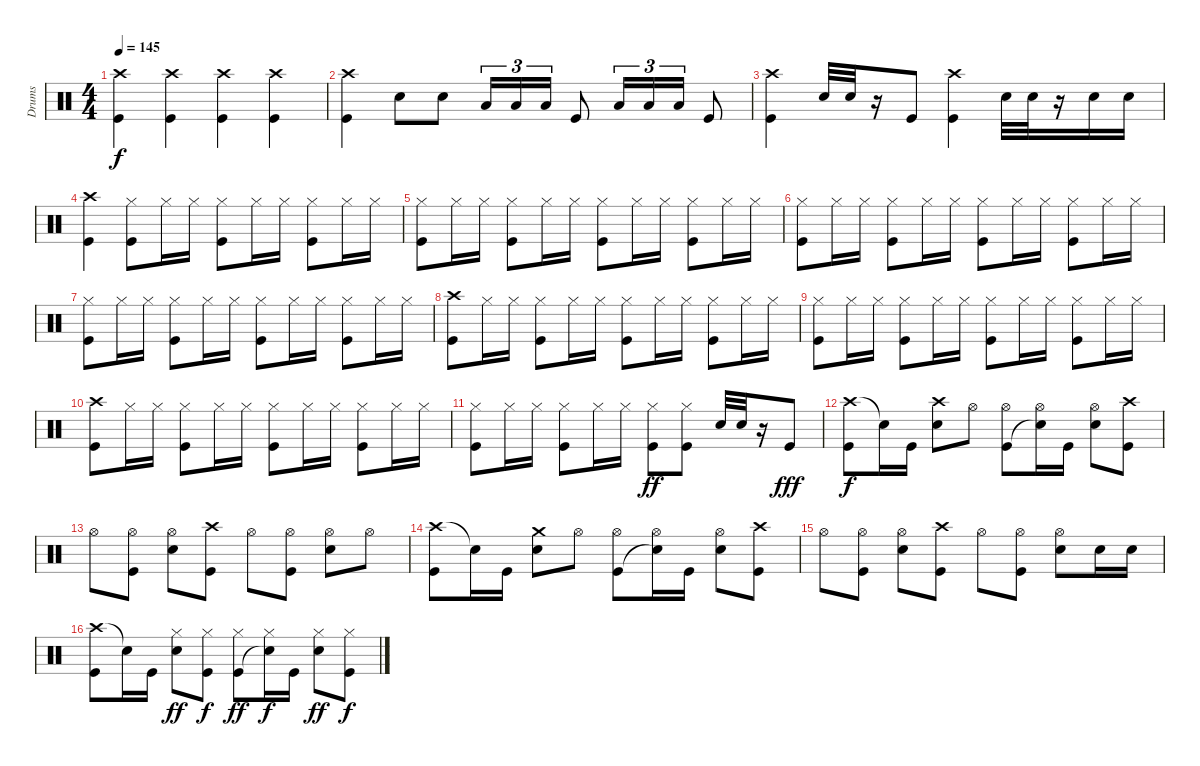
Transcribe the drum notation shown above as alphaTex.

\track ("Drums" "Drums") {instrument percussion}
\staff {score}
\articulation defaults
\ts (4 4)
\tempo 145
\clef neutral
\ks c
("Crash high (hit)" "Kick (hit)").4{dy f} ("Crash high (hit)" "Kick (hit)").4 ("Crash high (hit)" "Kick (hit)").4 ("Crash high (hit)" "Kick (hit)").4 |
("Crash high (hit)" "Kick (hit)").4 "Snare (hit) 2".8 "Snare (hit) 2".8 "Low Tom (hit)".16{tu (3 2)} "Low Tom (hit)".16{tu (3 2)} "Low Tom (hit)".16{tu (3 2)} "Kick (hit)".8 "Low Tom (hit)".16{tu (3 2)} "Low Tom (hit)".16{tu (3 2)} "Low Tom (hit)".16{tu (3 2)} "Kick (hit)".8 |
("Crash high (hit)" "Kick (hit)").4 "Snare (hit) 2".32 "Snare (hit) 2".32 r.16 "Kick (hit)".8 ("Crash high (hit)" "Kick (hit)").4 "Snare (hit) 2".32 "Snare (hit) 2".32 r.16 "Snare (hit) 2".16 "Snare (hit) 2".16 |
("Crash high (hit)" "Kick (hit)").4 ("Hi-Hat (closed)" "Kick (hit)").8 "Hi-Hat (closed)".16 "Hi-Hat (closed)".16 ("Hi-Hat (closed)" "Kick (hit)").8 "Hi-Hat (closed)".16 "Hi-Hat (closed)".16 ("Hi-Hat (closed)" "Kick (hit)").8 "Hi-Hat (closed)".16 "Hi-Hat (closed)".16 |
("Hi-Hat (closed)" "Kick (hit)").8 "Hi-Hat (closed)".16 "Hi-Hat (closed)".16 ("Hi-Hat (closed)" "Kick (hit)").8 "Hi-Hat (closed)".16 "Hi-Hat (closed)".16 ("Hi-Hat (closed)" "Kick (hit)").8 "Hi-Hat (closed)".16 "Hi-Hat (closed)".16 ("Hi-Hat (closed)" "Kick (hit)").8 "Hi-Hat (closed)".16 "Hi-Hat (closed)".16 |
("Hi-Hat (closed)" "Kick (hit)").8 "Hi-Hat (closed)".16 "Hi-Hat (closed)".16 ("Hi-Hat (closed)" "Kick (hit)").8 "Hi-Hat (closed)".16 "Hi-Hat (closed)".16 ("Hi-Hat (closed)" "Kick (hit)").8 "Hi-Hat (closed)".16 "Hi-Hat (closed)".16 ("Hi-Hat (closed)" "Kick (hit)").8 "Hi-Hat (closed)".16 "Hi-Hat (closed)".16 |
("Hi-Hat (closed)" "Kick (hit)").8 "Hi-Hat (closed)".16 "Hi-Hat (closed)".16 ("Hi-Hat (closed)" "Kick (hit)").8 "Hi-Hat (closed)".16 "Hi-Hat (closed)".16 ("Hi-Hat (closed)" "Kick (hit)").8 "Hi-Hat (closed)".16 "Hi-Hat (closed)".16 ("Hi-Hat (closed)" "Kick (hit)").8 "Hi-Hat (closed)".16 "Hi-Hat (closed)".16 |
("Crash high (hit)" "Kick (hit)").8 "Hi-Hat (closed)".16 "Hi-Hat (closed)".16 ("Hi-Hat (closed)" "Kick (hit)").8 "Hi-Hat (closed)".16 "Hi-Hat (closed)".16 ("Hi-Hat (closed)" "Kick (hit)").8 "Hi-Hat (closed)".16 "Hi-Hat (closed)".16 ("Hi-Hat (closed)" "Kick (hit)").8 "Hi-Hat (closed)".16 "Hi-Hat (closed)".16 |
("Hi-Hat (closed)" "Kick (hit)").8 "Hi-Hat (closed)".16 "Hi-Hat (closed)".16 ("Hi-Hat (closed)" "Kick (hit)").8 "Hi-Hat (closed)".16 "Hi-Hat (closed)".16 ("Hi-Hat (closed)" "Kick (hit)").8 "Hi-Hat (closed)".16 "Hi-Hat (closed)".16 ("Hi-Hat (closed)" "Kick (hit)").8 "Hi-Hat (closed)".16 "Hi-Hat (closed)".16 |
("Crash high (hit)" "Kick (hit)").8 "Hi-Hat (closed)".16 "Hi-Hat (closed)".16 ("Hi-Hat (closed)" "Kick (hit)").8 "Hi-Hat (closed)".16 "Hi-Hat (closed)".16 ("Hi-Hat (closed)" "Kick (hit)").8 "Hi-Hat (closed)".16 "Hi-Hat (closed)".16 ("Hi-Hat (closed)" "Kick (hit)").8 "Hi-Hat (closed)".16 "Hi-Hat (closed)".16 |
("Hi-Hat (closed)" "Kick (hit)").8 "Hi-Hat (closed)".16 "Hi-Hat (closed)".16 ("Hi-Hat (closed)" "Kick (hit)").8 "Hi-Hat (closed)".16 "Hi-Hat (closed)".16 ("Hi-Hat (closed)" "Kick (hit)").8{dy ff} ("Hi-Hat (closed)" "Kick (hit)").8 "Snare (hit) 2".32 "Snare (hit) 2".32 r.16 "Kick (hit)".8{dy fff} |
("Crash high (hit)" "Kick (hit)").8{dy f} "Snare (hit) 2"{t}.16 "Kick (hit)".16 ("Crash high (hit)" "Snare (hit) 2").8 "Hi-Hat (open)".8 ("Hi-Hat (open)" "Kick (hit)").8 ("Hi-Hat (open)" "Snare (hit)"{t}).16 "Kick (hit)".16 ("Hi-Hat (open)" "Snare (hit) 2").8 ("Crash high (hit)" "Kick (hit)").8 |
"Hi-Hat (open)".8 ("Hi-Hat (open)" "Kick (hit)").8 ("Hi-Hat (open)" "Snare (hit) 2").8 ("Crash high (hit)" "Kick (hit)").8 "Hi-Hat (open)".8 ("Hi-Hat (open)" "Kick (hit)").8 ("Hi-Hat (open)" "Snare (hit) 2").8 "Hi-Hat (open)".8 |
("Crash high (hit)" "Kick (hit)").8 "Snare (hit) 2"{t}.16 "Kick (hit)".16 ("Crash medium (hit)" "Snare (hit) 2").8 "Hi-Hat (open)".8 ("Hi-Hat (open)" "Kick (hit)").8 ("Hi-Hat (open)" "Snare (hit)"{t}).16 "Kick (hit)".16 ("Hi-Hat (open)" "Snare (hit) 2").8 ("Crash high (hit)" "Kick (hit)").8 |
"Hi-Hat (open)".8 ("Hi-Hat (open)" "Kick (hit)").8 ("Hi-Hat (open)" "Snare (hit) 2").8 ("Crash high (hit)" "Kick (hit)").8 "Hi-Hat (open)".8 ("Hi-Hat (open)" "Kick (hit)").8 ("Hi-Hat (open)" "Snare (hit) 2").8 "Snare (hit) 2".16 "Snare (hit) 2".16 |
("Crash high (hit)" "Kick (hit)").8 "Snare (hit) 2"{t}.16 "Kick (hit)".16 ("Hi-Hat (closed)" "Snare (hit) 2").8{dy ff} ("Hi-Hat (closed)" "Kick (hit)").8{dy f} ("Hi-Hat (closed)" "Kick (hit)").8{dy ff} ("Hi-Hat (closed)" "Snare (hit)"{t}).16{dy f} "Kick (hit)".16 ("Hi-Hat (closed)" "Snare (hit) 2").8{dy ff} ("Hi-Hat (closed)" "Kick (hit)").8{dy f}
